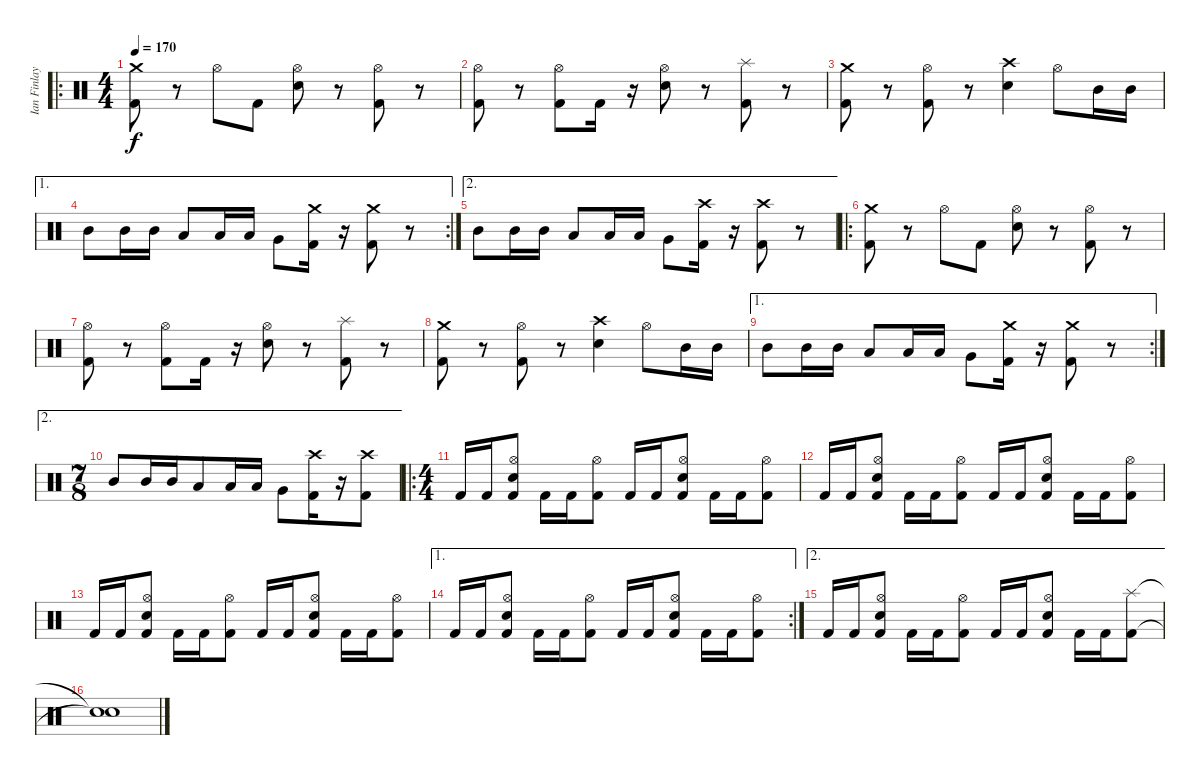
\track ("Ian Finlay (Drums)" "Ian Finlay") {instrument percussion}
\staff {score}
\articulation defaults
\ro
\ts (4 4)
\tempo 170
\clef neutral
\ks c
("Kick (hit) 2" "Crash medium (hit)").8{dy f} r.8 "Hi-Hat (open)".8 "Kick (hit) 2".8 ("Snare (hit) 2" "Hi-Hat (open)").8 r.8 ("Kick (hit) 2" "Hi-Hat (open)").8 r.8 |
("Kick (hit) 2" "Hi-Hat (open)").8 r.8 ("Kick (hit) 2" "Hi-Hat (open)").8 "Kick (hit) 2".16 r.16 ("Snare (hit) 2" "Hi-Hat (open)").8 r.8 ("Kick (hit) 2" "Splash (hit)").8 r.8 |
("Kick (hit) 2" "Crash medium (hit)").8 r.8 ("Kick (hit) 2" "Hi-Hat (open)").8 r.8 ("Snare (hit) 2" "Crash high (hit)").4 "Hi-Hat (open)".8 "Mid Tom (hit)".16 "Mid Tom (hit)".16 |
\ae 1
\rc 2 "Mid Tom (hit)".8 "Mid Tom (hit)".16 "Mid Tom (hit)".16 "Low Tom (hit)".8 "Low Tom (hit)".16 "Low Tom (hit)".16 "Very Low Tom (hit)".8
("Kick (hit) 2" "Crash medium (hit)").16 r.16 ("Kick (hit) 2" "Crash medium (hit)").8 r.8 |
\ae 2 "Mid Tom (hit)".8 "Mid Tom (hit)".16 "Mid Tom (hit)".16 "Low Tom (hit)".8 "Low Tom (hit)".16 "Low Tom (hit)".16 "Very Low Tom (hit)".8
("Kick (hit) 2" "Crash high (hit)").16 r.16 ("Kick (hit) 2" "Crash high (hit)").8 r.8 |
\ro
("Kick (hit) 2" "Crash medium (hit)").8 r.8 "Hi-Hat (open)".8 "Kick (hit) 2".8 ("Snare (hit) 2" "Hi-Hat (open)").8 r.8 ("Kick (hit) 2" "Hi-Hat (open)").8 r.8 |
("Kick (hit) 2" "Hi-Hat (open)").8 r.8 ("Kick (hit) 2" "Hi-Hat (open)").8 "Kick (hit) 2".16 r.16 ("Snare (hit) 2" "Hi-Hat (open)").8 r.8 ("Kick (hit) 2" "Splash (hit)").8 r.8 |
("Kick (hit) 2" "Crash medium (hit)").8 r.8 ("Kick (hit) 2" "Hi-Hat (open)").8 r.8 ("Snare (hit) 2" "Crash high (hit)").4 "Hi-Hat (open)".8 "Mid Tom (hit)".16 "Mid Tom (hit)".16 |
\ae 1
\rc 2 "Mid Tom (hit)".8 "Mid Tom (hit)".16 "Mid Tom (hit)".16 "Low Tom (hit)".8 "Low Tom (hit)".16 "Low Tom (hit)".16 "Very Low Tom (hit)".8
("Kick (hit) 2" "Crash medium (hit)").16 r.16 ("Kick (hit) 2" "Crash medium (hit)").8 r.8 |
\ae 2
\ts (7 8)
"Mid Tom (hit)".8 "Mid Tom (hit)".16 "Mid Tom (hit)".16 "Low Tom (hit)".8 "Low Tom (hit)".16 "Low Tom (hit)".16 "Very Low Tom (hit)".8 ("Kick (hit) 2" "Crash high (hit)").16 r.16 ("Kick (hit) 2" "Crash high (hit)").8 |
\ro
\ts (4 4)
"Kick (hit) 2".16 "Kick (hit) 2".16 ("Kick (hit) 2" "Hi-Hat (open)" "Snare (hit) 2").8 "Kick (hit) 2".16 "Kick (hit) 2".16 ("Kick (hit) 2" "Hi-Hat (open)").8 "Kick (hit) 2".16 "Kick (hit) 2".16 ("Kick (hit) 2" "Hi-Hat (open)" "Snare (hit) 2").8 "Kick (hit) 2".16 "Kick (hit) 2".16 ("Kick (hit) 2" "Hi-Hat (open)").8 |
"Kick (hit) 2".16 "Kick (hit) 2".16 ("Kick (hit) 2" "Hi-Hat (open)" "Snare (hit) 2").8 "Kick (hit) 2".16 "Kick (hit) 2".16 ("Kick (hit) 2" "Hi-Hat (open)").8 "Kick (hit) 2".16 "Kick (hit) 2".16 ("Kick (hit) 2" "Hi-Hat (open)" "Snare (hit) 2").8 "Kick (hit) 2".16 "Kick (hit) 2".16 ("Kick (hit) 2" "Hi-Hat (open)").8 |
"Kick (hit) 2".16 "Kick (hit) 2".16 ("Kick (hit) 2" "Hi-Hat (open)" "Snare (hit) 2").8 "Kick (hit) 2".16 "Kick (hit) 2".16 ("Kick (hit) 2" "Hi-Hat (open)").8 "Kick (hit) 2".16 "Kick (hit) 2".16 ("Kick (hit) 2" "Hi-Hat (open)" "Snare (hit) 2").8 "Kick (hit) 2".16 "Kick (hit) 2".16 ("Kick (hit) 2" "Hi-Hat (open)").8 |
\ae 1
\rc 2 "Kick (hit) 2".16 "Kick (hit) 2".16
("Kick (hit) 2" "Hi-Hat (open)" "Snare (hit) 2").8 "Kick (hit) 2".16 "Kick (hit) 2".16 ("Kick (hit) 2" "Hi-Hat (open)").8 "Kick (hit) 2".16 "Kick (hit) 2".16 ("Kick (hit) 2" "Hi-Hat (open)" "Snare (hit) 2").8 "Kick (hit) 2".16 "Kick (hit) 2".16 ("Kick (hit) 2" "Hi-Hat (open)").8 |
\ae 2 "Kick (hit) 2".16 "Kick (hit) 2".16
("Kick (hit) 2" "Hi-Hat (open)" "Snare (hit) 2").8 "Kick (hit) 2".16 "Kick (hit) 2".16 ("Kick (hit) 2" "Hi-Hat (open)").8 "Kick (hit) 2".16 "Kick (hit) 2".16 ("Kick (hit) 2" "Hi-Hat (open)" "Snare (hit) 2").8 "Kick (hit) 2".16 "Kick (hit) 2".16 ("Kick (hit) 2" "Splash (hit)").8 |
("Snare (hit)"{t} "Snare (hit)"{t}).1
